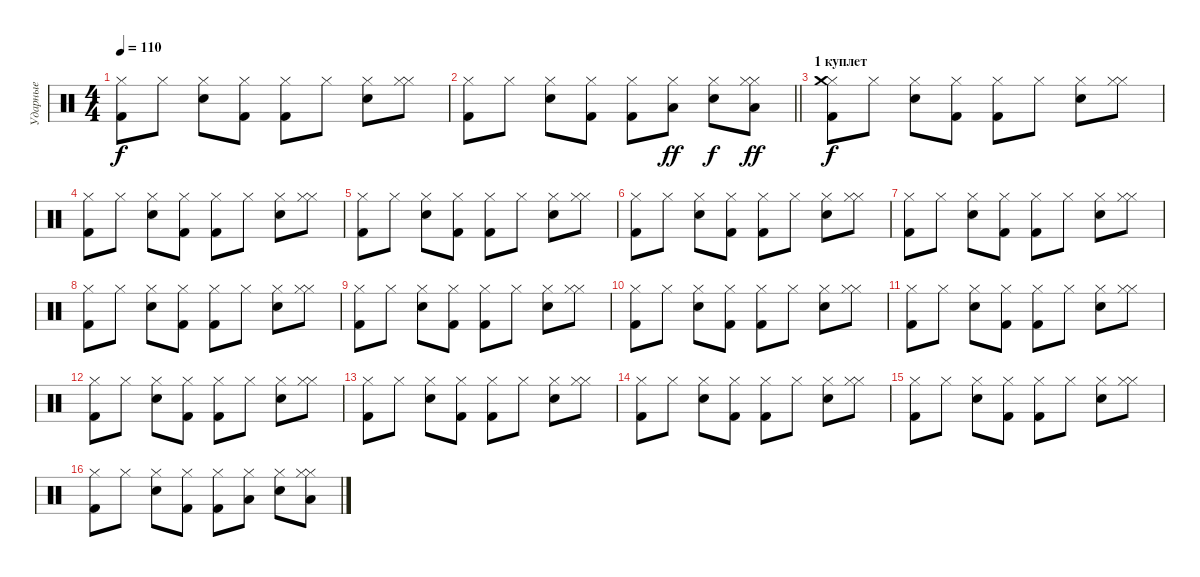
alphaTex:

\track ("Ударные" "Ударные") {instrument percussion}
\staff {score}
\articulation defaults
\ts (4 4)
\tempo 110
\clef neutral
\ks c
("Kick (hit) 2" "Hi-Hat (closed)").8{dy f} "Hi-Hat (closed)".8 ("Electric Snare (hit)" "Hi-Hat (closed)").8 ("Kick (hit) 2" "Hi-Hat (closed)").8 ("Kick (hit) 2" "Hi-Hat (closed)").8 "Hi-Hat (closed)".8 ("Electric Snare (hit)" "Hi-Hat (closed)").8 ("Hi-Hat (closed)" "Hi-Hat (closed)").8 |
\barLineRight lightlight
("Kick (hit) 2" "Hi-Hat (closed)").8 "Hi-Hat (closed)".8 ("Electric Snare (hit)" "Hi-Hat (closed)").8 ("Kick (hit) 2" "Hi-Hat (closed)").8 ("Kick (hit) 2" "Hi-Hat (closed)").8 ("Hi-Hat (closed)" "Low Tom (hit)").8{dy ff} ("Electric Snare (hit)" "Hi-Hat (closed)").8{dy f} ("Hi-Hat (closed)" "Hi-Hat (closed)" "Low Floor Tom (hit)").8{dy ff} |
\section ("" "1 куплет")
("Kick (hit) 2" "Hi-Hat (closed)" "Crash medium (hit)").8{dy f} "Hi-Hat (closed)".8 ("Electric Snare (hit)" "Hi-Hat (closed)").8 ("Kick (hit) 2" "Hi-Hat (closed)").8 ("Kick (hit) 2" "Hi-Hat (closed)").8 "Hi-Hat (closed)".8 ("Electric Snare (hit)" "Hi-Hat (closed)").8 ("Hi-Hat (closed)" "Hi-Hat (closed)").8 |
("Kick (hit) 2" "Hi-Hat (closed)").8 "Hi-Hat (closed)".8 ("Electric Snare (hit)" "Hi-Hat (closed)").8 ("Kick (hit) 2" "Hi-Hat (closed)").8 ("Kick (hit) 2" "Hi-Hat (closed)").8 "Hi-Hat (closed)".8 ("Electric Snare (hit)" "Hi-Hat (closed)").8 ("Hi-Hat (closed)" "Hi-Hat (closed)").8 |
("Kick (hit) 2" "Hi-Hat (closed)").8 "Hi-Hat (closed)".8 ("Electric Snare (hit)" "Hi-Hat (closed)").8 ("Kick (hit) 2" "Hi-Hat (closed)").8 ("Kick (hit) 2" "Hi-Hat (closed)").8 "Hi-Hat (closed)".8 ("Electric Snare (hit)" "Hi-Hat (closed)").8 ("Hi-Hat (closed)" "Hi-Hat (closed)").8 |
("Kick (hit) 2" "Hi-Hat (closed)").8 "Hi-Hat (closed)".8 ("Electric Snare (hit)" "Hi-Hat (closed)").8 ("Kick (hit) 2" "Hi-Hat (closed)").8 ("Kick (hit) 2" "Hi-Hat (closed)").8 "Hi-Hat (closed)".8 ("Electric Snare (hit)" "Hi-Hat (closed)").8 ("Hi-Hat (closed)" "Hi-Hat (closed)").8 |
("Kick (hit) 2" "Hi-Hat (closed)").8 "Hi-Hat (closed)".8 ("Electric Snare (hit)" "Hi-Hat (closed)").8 ("Kick (hit) 2" "Hi-Hat (closed)").8 ("Kick (hit) 2" "Hi-Hat (closed)").8 "Hi-Hat (closed)".8 ("Electric Snare (hit)" "Hi-Hat (closed)").8 ("Hi-Hat (closed)" "Hi-Hat (closed)").8 |
("Kick (hit) 2" "Hi-Hat (closed)").8 "Hi-Hat (closed)".8 ("Electric Snare (hit)" "Hi-Hat (closed)").8 ("Kick (hit) 2" "Hi-Hat (closed)").8 ("Kick (hit) 2" "Hi-Hat (closed)").8 "Hi-Hat (closed)".8 ("Electric Snare (hit)" "Hi-Hat (closed)").8 ("Hi-Hat (closed)" "Hi-Hat (closed)").8 |
("Kick (hit) 2" "Hi-Hat (closed)").8 "Hi-Hat (closed)".8 ("Electric Snare (hit)" "Hi-Hat (closed)").8 ("Kick (hit) 2" "Hi-Hat (closed)").8 ("Kick (hit) 2" "Hi-Hat (closed)").8 "Hi-Hat (closed)".8 ("Electric Snare (hit)" "Hi-Hat (closed)").8 ("Hi-Hat (closed)" "Hi-Hat (closed)").8 |
("Kick (hit) 2" "Hi-Hat (closed)").8 "Hi-Hat (closed)".8 ("Electric Snare (hit)" "Hi-Hat (closed)").8 ("Kick (hit) 2" "Hi-Hat (closed)").8 ("Kick (hit) 2" "Hi-Hat (closed)").8 "Hi-Hat (closed)".8 ("Electric Snare (hit)" "Hi-Hat (closed)").8 ("Hi-Hat (closed)" "Hi-Hat (closed)").8 |
("Kick (hit) 2" "Hi-Hat (closed)").8 "Hi-Hat (closed)".8 ("Electric Snare (hit)" "Hi-Hat (closed)").8 ("Kick (hit) 2" "Hi-Hat (closed)").8 ("Kick (hit) 2" "Hi-Hat (closed)").8 "Hi-Hat (closed)".8 ("Electric Snare (hit)" "Hi-Hat (closed)").8 ("Hi-Hat (closed)" "Hi-Hat (closed)").8 |
("Kick (hit) 2" "Hi-Hat (closed)").8 "Hi-Hat (closed)".8 ("Electric Snare (hit)" "Hi-Hat (closed)").8 ("Kick (hit) 2" "Hi-Hat (closed)").8 ("Kick (hit) 2" "Hi-Hat (closed)").8 "Hi-Hat (closed)".8 ("Electric Snare (hit)" "Hi-Hat (closed)").8 ("Hi-Hat (closed)" "Hi-Hat (closed)").8 |
("Kick (hit) 2" "Hi-Hat (closed)").8 "Hi-Hat (closed)".8 ("Electric Snare (hit)" "Hi-Hat (closed)").8 ("Kick (hit) 2" "Hi-Hat (closed)").8 ("Kick (hit) 2" "Hi-Hat (closed)").8 "Hi-Hat (closed)".8 ("Electric Snare (hit)" "Hi-Hat (closed)").8 ("Hi-Hat (closed)" "Hi-Hat (closed)").8 |
("Kick (hit) 2" "Hi-Hat (closed)").8 "Hi-Hat (closed)".8 ("Electric Snare (hit)" "Hi-Hat (closed)").8 ("Kick (hit) 2" "Hi-Hat (closed)").8 ("Kick (hit) 2" "Hi-Hat (closed)").8 "Hi-Hat (closed)".8 ("Electric Snare (hit)" "Hi-Hat (closed)").8 ("Hi-Hat (closed)" "Hi-Hat (closed)").8 |
("Kick (hit) 2" "Hi-Hat (closed)").8 "Hi-Hat (closed)".8 ("Electric Snare (hit)" "Hi-Hat (closed)").8 ("Kick (hit) 2" "Hi-Hat (closed)").8 ("Kick (hit) 2" "Hi-Hat (closed)").8 "Hi-Hat (closed)".8 ("Electric Snare (hit)" "Hi-Hat (closed)").8 ("Hi-Hat (closed)" "Hi-Hat (closed)").8 |
("Kick (hit) 2" "Hi-Hat (closed)").8 "Hi-Hat (closed)".8 ("Electric Snare (hit)" "Hi-Hat (closed)").8 ("Kick (hit) 2" "Hi-Hat (closed)").8 ("Kick (hit) 2" "Hi-Hat (closed)").8 ("Hi-Hat (closed)" "Low Tom (hit)").8 ("Electric Snare (hit)" "Hi-Hat (closed)").8 ("Hi-Hat (closed)" "Hi-Hat (closed)" "Low Floor Tom (hit)").8
